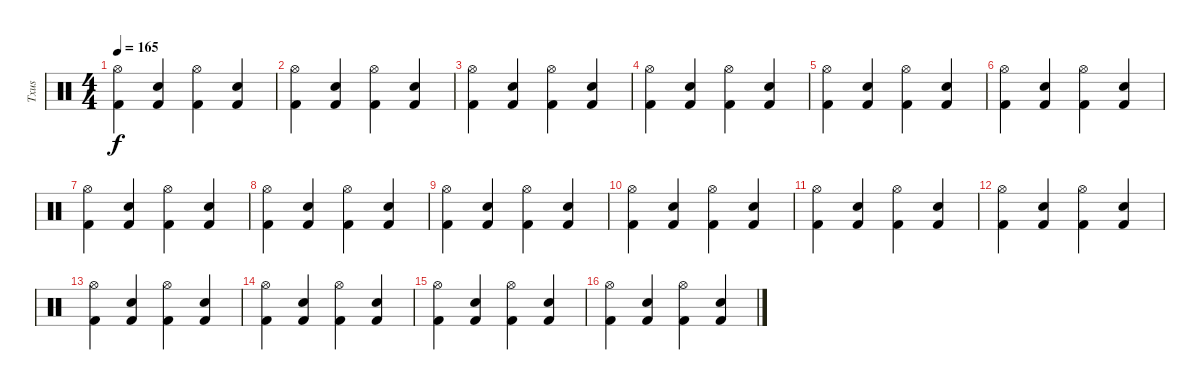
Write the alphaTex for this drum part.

\track ("Txus" "Txus") {instrument percussion}
\staff {score}
\articulation defaults
\ts (4 4)
\tempo 165
\clef neutral
\ks c
("Hi-Hat (open)" "Kick (hit) 2").4{dy f} ("Snare (hit) 2" "Kick (hit) 2").4 ("Hi-Hat (open)" "Kick (hit) 2").4 ("Snare (hit) 2" "Kick (hit) 2").4 |
("Hi-Hat (open)" "Kick (hit) 2").4 ("Snare (hit) 2" "Kick (hit) 2").4 ("Hi-Hat (open)" "Kick (hit) 2").4 ("Snare (hit) 2" "Kick (hit) 2").4 |
("Hi-Hat (open)" "Kick (hit) 2").4 ("Snare (hit) 2" "Kick (hit) 2").4 ("Hi-Hat (open)" "Kick (hit) 2").4 ("Snare (hit) 2" "Kick (hit) 2").4 |
("Hi-Hat (open)" "Kick (hit) 2").4 ("Snare (hit) 2" "Kick (hit) 2").4 ("Hi-Hat (open)" "Kick (hit) 2").4 ("Snare (hit) 2" "Kick (hit) 2").4 |
("Hi-Hat (open)" "Kick (hit) 2").4 ("Snare (hit) 2" "Kick (hit) 2").4 ("Hi-Hat (open)" "Kick (hit) 2").4 ("Snare (hit) 2" "Kick (hit) 2").4 |
("Hi-Hat (open)" "Kick (hit) 2").4 ("Snare (hit) 2" "Kick (hit) 2").4 ("Hi-Hat (open)" "Kick (hit) 2").4 ("Snare (hit) 2" "Kick (hit) 2").4 |
("Hi-Hat (open)" "Kick (hit) 2").4 ("Snare (hit) 2" "Kick (hit) 2").4 ("Hi-Hat (open)" "Kick (hit) 2").4 ("Snare (hit) 2" "Kick (hit) 2").4 |
("Hi-Hat (open)" "Kick (hit) 2").4 ("Snare (hit) 2" "Kick (hit) 2").4 ("Hi-Hat (open)" "Kick (hit) 2").4 ("Snare (hit) 2" "Kick (hit) 2").4 |
("Hi-Hat (open)" "Kick (hit) 2").4 ("Snare (hit) 2" "Kick (hit) 2").4 ("Hi-Hat (open)" "Kick (hit) 2").4 ("Snare (hit) 2" "Kick (hit) 2").4 |
("Hi-Hat (open)" "Kick (hit) 2").4 ("Snare (hit) 2" "Kick (hit) 2").4 ("Hi-Hat (open)" "Kick (hit) 2").4 ("Snare (hit) 2" "Kick (hit) 2").4 |
("Hi-Hat (open)" "Kick (hit) 2").4 ("Snare (hit) 2" "Kick (hit) 2").4 ("Hi-Hat (open)" "Kick (hit) 2").4 ("Snare (hit) 2" "Kick (hit) 2").4 |
("Hi-Hat (open)" "Kick (hit) 2").4 ("Snare (hit) 2" "Kick (hit) 2").4 ("Hi-Hat (open)" "Kick (hit) 2").4 ("Snare (hit) 2" "Kick (hit) 2").4 |
("Hi-Hat (open)" "Kick (hit) 2").4 ("Snare (hit) 2" "Kick (hit) 2").4 ("Hi-Hat (open)" "Kick (hit) 2").4 ("Snare (hit) 2" "Kick (hit) 2").4 |
("Hi-Hat (open)" "Kick (hit) 2").4 ("Snare (hit) 2" "Kick (hit) 2").4 ("Hi-Hat (open)" "Kick (hit) 2").4 ("Snare (hit) 2" "Kick (hit) 2").4 |
("Hi-Hat (open)" "Kick (hit) 2").4 ("Snare (hit) 2" "Kick (hit) 2").4 ("Hi-Hat (open)" "Kick (hit) 2").4 ("Snare (hit) 2" "Kick (hit) 2").4 |
("Hi-Hat (open)" "Kick (hit) 2").4 ("Snare (hit) 2" "Kick (hit) 2").4 ("Hi-Hat (open)" "Kick (hit) 2").4 ("Snare (hit) 2" "Kick (hit) 2").4
